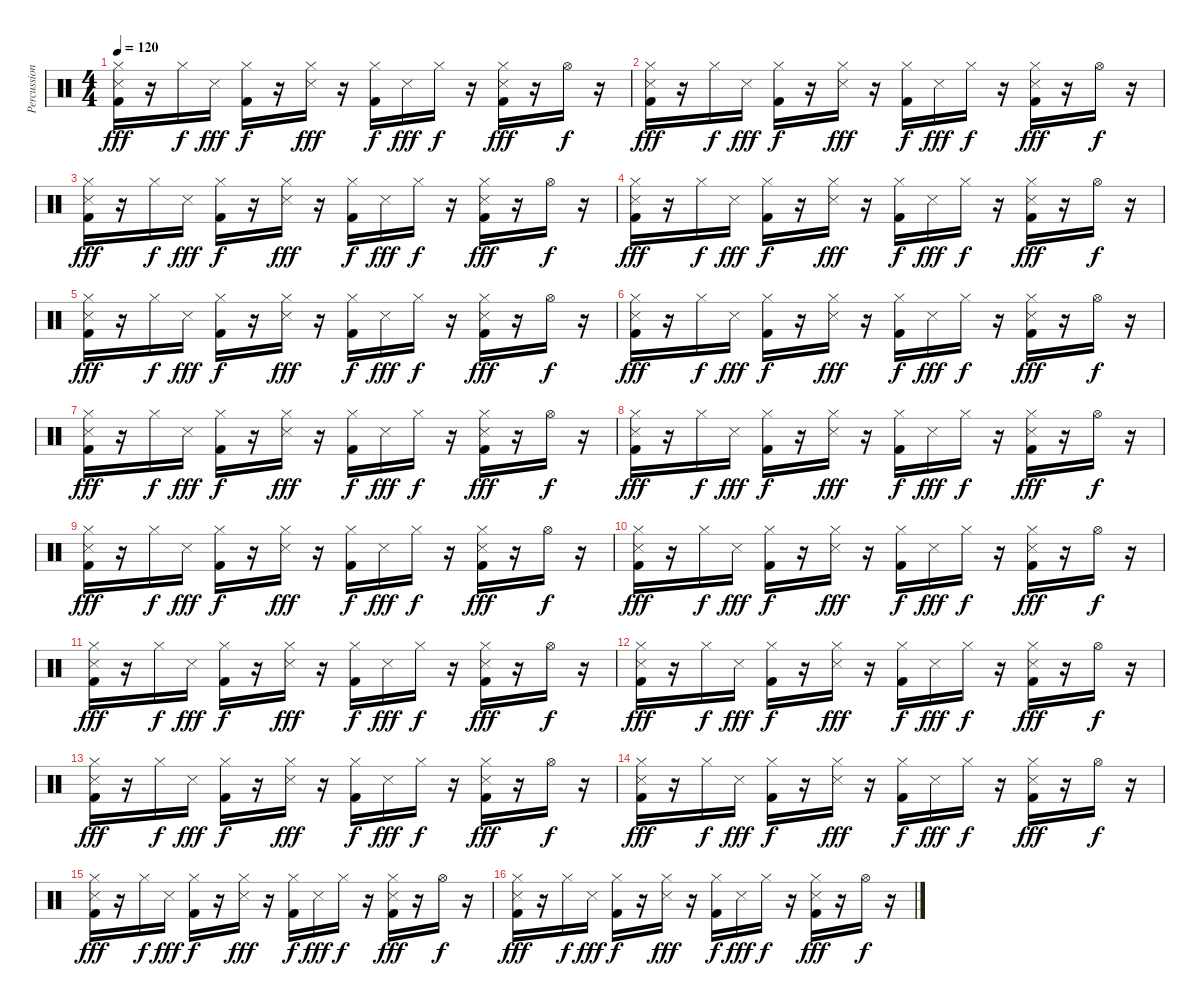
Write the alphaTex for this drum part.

\track ("Percussions" "Percussion") {instrument percussion}
\staff {score}
\articulation defaults
\ts (4 4)
\tempo 120
\clef neutral
\ks c
("Hi-Hat (closed)" "Snare (side stick) 3" "Kick (hit) 2").16{dy fff} r.16 "Hi-Hat (closed)".16{dy f} "Snare (side stick) 3".16{dy fff} ("Hi-Hat (closed)" "Kick (hit) 2").16{dy f} r.16 ("Hi-Hat (closed)" "Snare (side stick) 3").16{dy fff} r.16 ("Hi-Hat (closed)" "Kick (hit) 2").16{dy f} "Snare (side stick) 3".16{dy fff} "Hi-Hat (closed)".16{dy f} r.16 ("Hi-Hat (closed)" "Snare (side stick) 3" "Kick (hit) 2").16{dy fff} r.16 "Hi-Hat (open)".16{dy f} r.16 |
("Hi-Hat (closed)" "Snare (side stick) 3" "Kick (hit) 2").16{dy fff} r.16 "Hi-Hat (closed)".16{dy f} "Snare (side stick) 3".16{dy fff} ("Hi-Hat (closed)" "Kick (hit) 2").16{dy f} r.16 ("Hi-Hat (closed)" "Snare (side stick) 3").16{dy fff} r.16 ("Hi-Hat (closed)" "Kick (hit) 2").16{dy f} "Snare (side stick) 3".16{dy fff} "Hi-Hat (closed)".16{dy f} r.16 ("Hi-Hat (closed)" "Snare (side stick) 3" "Kick (hit) 2").16{dy fff} r.16 "Hi-Hat (open)".16{dy f} r.16 |
("Hi-Hat (closed)" "Snare (side stick) 3" "Kick (hit) 2").16{dy fff} r.16 "Hi-Hat (closed)".16{dy f} "Snare (side stick) 3".16{dy fff} ("Hi-Hat (closed)" "Kick (hit) 2").16{dy f} r.16 ("Hi-Hat (closed)" "Snare (side stick) 3").16{dy fff} r.16 ("Hi-Hat (closed)" "Kick (hit) 2").16{dy f} "Snare (side stick) 3".16{dy fff} "Hi-Hat (closed)".16{dy f} r.16 ("Hi-Hat (closed)" "Snare (side stick) 3" "Kick (hit) 2").16{dy fff} r.16 "Hi-Hat (open)".16{dy f} r.16 |
("Hi-Hat (closed)" "Snare (side stick) 3" "Kick (hit) 2").16{dy fff} r.16 "Hi-Hat (closed)".16{dy f} "Snare (side stick) 3".16{dy fff} ("Hi-Hat (closed)" "Kick (hit) 2").16{dy f} r.16 ("Hi-Hat (closed)" "Snare (side stick) 3").16{dy fff} r.16 ("Hi-Hat (closed)" "Kick (hit) 2").16{dy f} "Snare (side stick) 3".16{dy fff} "Hi-Hat (closed)".16{dy f} r.16 ("Hi-Hat (closed)" "Snare (side stick) 3" "Kick (hit) 2").16{dy fff} r.16 "Hi-Hat (open)".16{dy f} r.16 |
("Hi-Hat (closed)" "Snare (side stick) 3" "Kick (hit) 2").16{dy fff} r.16 "Hi-Hat (closed)".16{dy f} "Snare (side stick) 3".16{dy fff} ("Hi-Hat (closed)" "Kick (hit) 2").16{dy f} r.16 ("Hi-Hat (closed)" "Snare (side stick) 3").16{dy fff} r.16 ("Hi-Hat (closed)" "Kick (hit) 2").16{dy f} "Snare (side stick) 3".16{dy fff} "Hi-Hat (closed)".16{dy f} r.16 ("Hi-Hat (closed)" "Snare (side stick) 3" "Kick (hit) 2").16{dy fff} r.16 "Hi-Hat (open)".16{dy f} r.16 |
("Hi-Hat (closed)" "Snare (side stick) 3" "Kick (hit) 2").16{dy fff} r.16 "Hi-Hat (closed)".16{dy f} "Snare (side stick) 3".16{dy fff} ("Hi-Hat (closed)" "Kick (hit) 2").16{dy f} r.16 ("Hi-Hat (closed)" "Snare (side stick) 3").16{dy fff} r.16 ("Hi-Hat (closed)" "Kick (hit) 2").16{dy f} "Snare (side stick) 3".16{dy fff} "Hi-Hat (closed)".16{dy f} r.16 ("Hi-Hat (closed)" "Snare (side stick) 3" "Kick (hit) 2").16{dy fff} r.16 "Hi-Hat (open)".16{dy f} r.16 |
("Hi-Hat (closed)" "Snare (side stick) 3" "Kick (hit) 2").16{dy fff} r.16 "Hi-Hat (closed)".16{dy f} "Snare (side stick) 3".16{dy fff} ("Hi-Hat (closed)" "Kick (hit) 2").16{dy f} r.16 ("Hi-Hat (closed)" "Snare (side stick) 3").16{dy fff} r.16 ("Hi-Hat (closed)" "Kick (hit) 2").16{dy f} "Snare (side stick) 3".16{dy fff} "Hi-Hat (closed)".16{dy f} r.16 ("Hi-Hat (closed)" "Snare (side stick) 3" "Kick (hit) 2").16{dy fff} r.16 "Hi-Hat (open)".16{dy f} r.16 |
("Hi-Hat (closed)" "Snare (side stick) 3" "Kick (hit) 2").16{dy fff} r.16 "Hi-Hat (closed)".16{dy f} "Snare (side stick) 3".16{dy fff} ("Hi-Hat (closed)" "Kick (hit) 2").16{dy f} r.16 ("Hi-Hat (closed)" "Snare (side stick) 3").16{dy fff} r.16 ("Hi-Hat (closed)" "Kick (hit) 2").16{dy f} "Snare (side stick) 3".16{dy fff} "Hi-Hat (closed)".16{dy f} r.16 ("Hi-Hat (closed)" "Snare (side stick) 3" "Kick (hit) 2").16{dy fff} r.16 "Hi-Hat (open)".16{dy f} r.16 |
("Hi-Hat (closed)" "Snare (side stick) 3" "Kick (hit) 2").16{dy fff} r.16 "Hi-Hat (closed)".16{dy f} "Snare (side stick) 3".16{dy fff} ("Hi-Hat (closed)" "Kick (hit) 2").16{dy f} r.16 ("Hi-Hat (closed)" "Snare (side stick) 3").16{dy fff} r.16 ("Hi-Hat (closed)" "Kick (hit) 2").16{dy f} "Snare (side stick) 3".16{dy fff} "Hi-Hat (closed)".16{dy f} r.16 ("Hi-Hat (closed)" "Snare (side stick) 3" "Kick (hit) 2").16{dy fff} r.16 "Hi-Hat (open)".16{dy f} r.16 |
("Hi-Hat (closed)" "Snare (side stick) 3" "Kick (hit) 2").16{dy fff} r.16 "Hi-Hat (closed)".16{dy f} "Snare (side stick) 3".16{dy fff} ("Hi-Hat (closed)" "Kick (hit) 2").16{dy f} r.16 ("Hi-Hat (closed)" "Snare (side stick) 3").16{dy fff} r.16 ("Hi-Hat (closed)" "Kick (hit) 2").16{dy f} "Snare (side stick) 3".16{dy fff} "Hi-Hat (closed)".16{dy f} r.16 ("Hi-Hat (closed)" "Snare (side stick) 3" "Kick (hit) 2").16{dy fff} r.16 "Hi-Hat (open)".16{dy f} r.16 |
("Hi-Hat (closed)" "Snare (side stick) 3" "Kick (hit) 2").16{dy fff} r.16 "Hi-Hat (closed)".16{dy f} "Snare (side stick) 3".16{dy fff} ("Hi-Hat (closed)" "Kick (hit) 2").16{dy f} r.16 ("Hi-Hat (closed)" "Snare (side stick) 3").16{dy fff} r.16 ("Hi-Hat (closed)" "Kick (hit) 2").16{dy f} "Snare (side stick) 3".16{dy fff} "Hi-Hat (closed)".16{dy f} r.16 ("Hi-Hat (closed)" "Snare (side stick) 3" "Kick (hit) 2").16{dy fff} r.16 "Hi-Hat (open)".16{dy f} r.16 |
("Hi-Hat (closed)" "Snare (side stick) 3" "Kick (hit) 2").16{dy fff} r.16 "Hi-Hat (closed)".16{dy f} "Snare (side stick) 3".16{dy fff} ("Hi-Hat (closed)" "Kick (hit) 2").16{dy f} r.16 ("Hi-Hat (closed)" "Snare (side stick) 3").16{dy fff} r.16 ("Hi-Hat (closed)" "Kick (hit) 2").16{dy f} "Snare (side stick) 3".16{dy fff} "Hi-Hat (closed)".16{dy f} r.16 ("Hi-Hat (closed)" "Snare (side stick) 3" "Kick (hit) 2").16{dy fff} r.16 "Hi-Hat (open)".16{dy f} r.16 |
("Hi-Hat (closed)" "Snare (side stick) 3" "Kick (hit) 2").16{dy fff} r.16 "Hi-Hat (closed)".16{dy f} "Snare (side stick) 3".16{dy fff} ("Hi-Hat (closed)" "Kick (hit) 2").16{dy f} r.16 ("Hi-Hat (closed)" "Snare (side stick) 3").16{dy fff} r.16 ("Hi-Hat (closed)" "Kick (hit) 2").16{dy f} "Snare (side stick) 3".16{dy fff} "Hi-Hat (closed)".16{dy f} r.16 ("Hi-Hat (closed)" "Snare (side stick) 3" "Kick (hit) 2").16{dy fff} r.16 "Hi-Hat (open)".16{dy f} r.16 |
("Hi-Hat (closed)" "Snare (side stick) 3" "Kick (hit) 2").16{dy fff} r.16 "Hi-Hat (closed)".16{dy f} "Snare (side stick) 3".16{dy fff} ("Hi-Hat (closed)" "Kick (hit) 2").16{dy f} r.16 ("Hi-Hat (closed)" "Snare (side stick) 3").16{dy fff} r.16 ("Hi-Hat (closed)" "Kick (hit) 2").16{dy f} "Snare (side stick) 3".16{dy fff} "Hi-Hat (closed)".16{dy f} r.16 ("Hi-Hat (closed)" "Snare (side stick) 3" "Kick (hit) 2").16{dy fff} r.16 "Hi-Hat (open)".16{dy f} r.16 |
("Hi-Hat (closed)" "Snare (side stick) 3" "Kick (hit) 2").16{dy fff} r.16 "Hi-Hat (closed)".16{dy f} "Snare (side stick) 3".16{dy fff} ("Hi-Hat (closed)" "Kick (hit) 2").16{dy f} r.16 ("Hi-Hat (closed)" "Snare (side stick) 3").16{dy fff} r.16 ("Hi-Hat (closed)" "Kick (hit) 2").16{dy f} "Snare (side stick) 3".16{dy fff} "Hi-Hat (closed)".16{dy f} r.16 ("Hi-Hat (closed)" "Snare (side stick) 3" "Kick (hit) 2").16{dy fff} r.16 "Hi-Hat (open)".16{dy f} r.16 |
("Hi-Hat (closed)" "Snare (side stick) 3" "Kick (hit) 2").16{dy fff} r.16 "Hi-Hat (closed)".16{dy f} "Snare (side stick) 3".16{dy fff} ("Hi-Hat (closed)" "Kick (hit) 2").16{dy f} r.16 ("Hi-Hat (closed)" "Snare (side stick) 3").16{dy fff} r.16 ("Hi-Hat (closed)" "Kick (hit) 2").16{dy f} "Snare (side stick) 3".16{dy fff} "Hi-Hat (closed)".16{dy f} r.16 ("Hi-Hat (closed)" "Snare (side stick) 3" "Kick (hit) 2").16{dy fff} r.16 "Hi-Hat (open)".16{dy f} r.16
